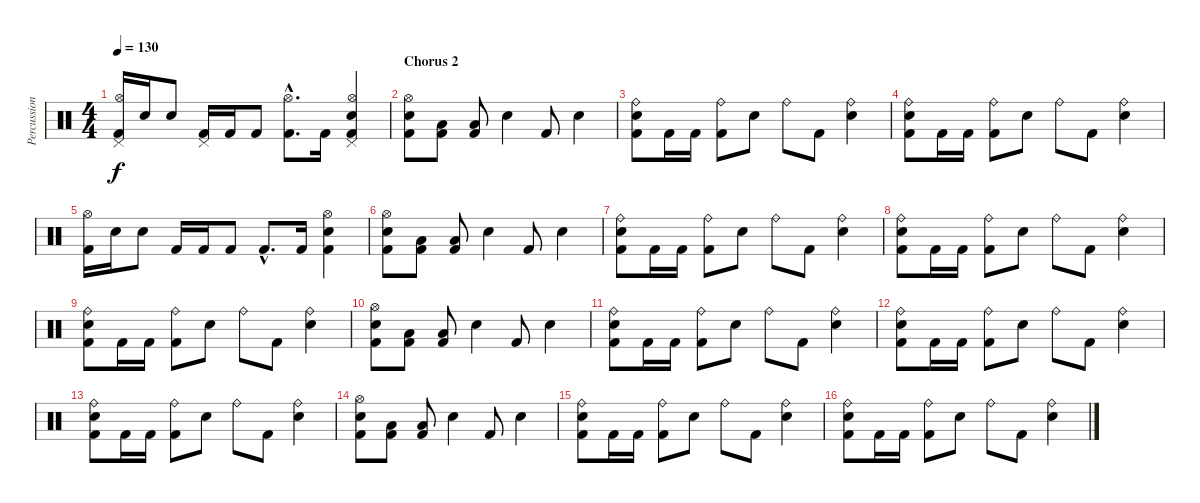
\track ("Percussion" "Percussion") {instrument percussion}
\staff {score}
\articulation defaults
\ts (4 4)
\tempo 130
\clef neutral
\ks c
("Pedal Hi-Hat (hit)" "Hi-Hat (open)" "Kick (hit) 2").16{dy f} "Electric Snare (hit)".16 "Electric Snare (hit)".8 ("Pedal Hi-Hat (hit)" "Kick (hit) 2").16 "Kick (hit) 2".16 "Kick (hit) 2".8 ("Hi-Hat (open)"{hac} "Kick (hit) 2"{hac}).8{d} "Kick (hit) 2".16 ("Pedal Hi-Hat (hit)" "Hi-Hat (open)" "Kick (hit) 2" "Electric Snare (hit)").4 |
\section ("" "Chorus 2")
("Hi-Hat (open)" "Electric Snare (hit)" "Kick (hit) 2").8 ("Low Floor Tom (hit)" "Kick (hit) 2").8 ("Low Floor Tom (hit)" "Kick (hit) 2").8 "Electric Snare (hit)".4 "Kick (hit) 2".8 "Electric Snare (hit)".4 |
("Ride (bell)" "Electric Snare (hit)" "Kick (hit) 2").8 "Kick (hit) 2".16 "Kick (hit) 2".16 ("Ride (bell)" "Kick (hit) 2").8 "Electric Snare (hit)".8 "Ride (bell)".8 "Kick (hit) 2".8 ("Ride (bell)" "Electric Snare (hit)").4 |
("Ride (bell)" "Electric Snare (hit)" "Kick (hit) 2").8 "Kick (hit) 2".16 "Kick (hit) 2".16 ("Ride (bell)" "Kick (hit) 2").8 "Electric Snare (hit)".8 "Ride (bell)".8 "Kick (hit) 2".8 ("Ride (bell)" "Electric Snare (hit)").4 |
("Hi-Hat (open)" "Kick (hit) 2").16 "Electric Snare (hit)".16 "Electric Snare (hit)".8 "Kick (hit) 2".16 "Kick (hit) 2".16 "Kick (hit) 2".8 "Kick (hit) 2"{hac}.8{d} "Kick (hit) 2".16 ("Hi-Hat (open)" "Kick (hit) 2" "Electric Snare (hit)").4 |
("Hi-Hat (open)" "Electric Snare (hit)" "Kick (hit) 2").8 ("Low Floor Tom (hit)" "Kick (hit) 2").8 ("Low Floor Tom (hit)" "Kick (hit) 2").8 "Electric Snare (hit)".4 "Kick (hit) 2".8 "Electric Snare (hit)".4 |
("Ride (bell)" "Electric Snare (hit)" "Kick (hit) 2").8 "Kick (hit) 2".16 "Kick (hit) 2".16 ("Ride (bell)" "Kick (hit) 2").8 "Electric Snare (hit)".8 "Ride (bell)".8 "Kick (hit) 2".8 ("Ride (bell)" "Electric Snare (hit)").4 |
("Ride (bell)" "Electric Snare (hit)" "Kick (hit) 2").8 "Kick (hit) 2".16 "Kick (hit) 2".16 ("Ride (bell)" "Kick (hit) 2").8 "Electric Snare (hit)".8 "Ride (bell)".8 "Kick (hit) 2".8 ("Ride (bell)" "Electric Snare (hit)").4 |
("Ride (bell)" "Electric Snare (hit)" "Kick (hit) 2").8 "Kick (hit) 2".16 "Kick (hit) 2".16 ("Ride (bell)" "Kick (hit) 2").8 "Electric Snare (hit)".8 "Ride (bell)".8 "Kick (hit) 2".8 ("Ride (bell)" "Electric Snare (hit)").4 |
("Hi-Hat (open)" "Electric Snare (hit)" "Kick (hit) 2").8 ("Low Floor Tom (hit)" "Kick (hit) 2").8 ("Low Floor Tom (hit)" "Kick (hit) 2").8 "Electric Snare (hit)".4 "Kick (hit) 2".8 "Electric Snare (hit)".4 |
("Ride (bell)" "Electric Snare (hit)" "Kick (hit) 2").8 "Kick (hit) 2".16 "Kick (hit) 2".16 ("Ride (bell)" "Kick (hit) 2").8 "Electric Snare (hit)".8 "Ride (bell)".8 "Kick (hit) 2".8 ("Ride (bell)" "Electric Snare (hit)").4 |
("Ride (bell)" "Electric Snare (hit)" "Kick (hit) 2").8 "Kick (hit) 2".16 "Kick (hit) 2".16 ("Ride (bell)" "Kick (hit) 2").8 "Electric Snare (hit)".8 "Ride (bell)".8 "Kick (hit) 2".8 ("Ride (bell)" "Electric Snare (hit)").4 |
("Ride (bell)" "Electric Snare (hit)" "Kick (hit) 2").8 "Kick (hit) 2".16 "Kick (hit) 2".16 ("Ride (bell)" "Kick (hit) 2").8 "Electric Snare (hit)".8 "Ride (bell)".8 "Kick (hit) 2".8 ("Ride (bell)" "Electric Snare (hit)").4 |
("Hi-Hat (open)" "Electric Snare (hit)" "Kick (hit) 2").8 ("Low Floor Tom (hit)" "Kick (hit) 2").8 ("Low Floor Tom (hit)" "Kick (hit) 2").8 "Electric Snare (hit)".4 "Kick (hit) 2".8 "Electric Snare (hit)".4 |
("Ride (bell)" "Electric Snare (hit)" "Kick (hit) 2").8 "Kick (hit) 2".16 "Kick (hit) 2".16 ("Ride (bell)" "Kick (hit) 2").8 "Electric Snare (hit)".8 "Ride (bell)".8 "Kick (hit) 2".8 ("Ride (bell)" "Electric Snare (hit)").4 |
("Ride (bell)" "Electric Snare (hit)" "Kick (hit) 2").8 "Kick (hit) 2".16 "Kick (hit) 2".16 ("Ride (bell)" "Kick (hit) 2").8 "Electric Snare (hit)".8 "Ride (bell)".8 "Kick (hit) 2".8 ("Ride (bell)" "Electric Snare (hit)").4
